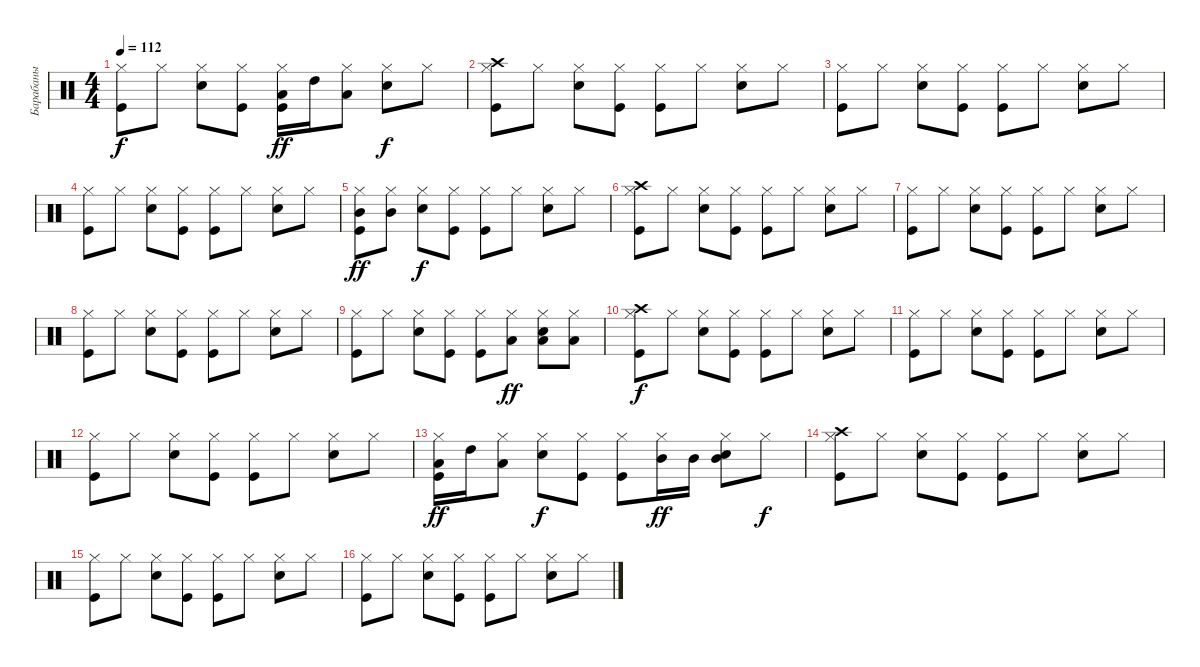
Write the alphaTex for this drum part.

\track ("Барабаны" "Барабаны") {instrument percussion}
\staff {score}
\articulation defaults
\ts (4 4)
\tempo 112
\clef neutral
\ks c
("Kick (hit)" "Hi-Hat (closed)").8{dy f} "Hi-Hat (closed)".8 ("Snare (hit) 2" "Hi-Hat (closed)").8 ("Kick (hit)" "Hi-Hat (closed)").8 ("Kick (hit)" "Hi-Hat (closed)" "Low Floor Tom (hit)").16{dy ff} "High Tom (hit)".16 ("Hi-Hat (closed)" "Low Floor Tom (hit)").8 ("Snare (hit) 2" "Hi-Hat (closed)").8{dy f} "Hi-Hat (closed)".8 |
("Kick (hit)" "Hi-Hat (closed)" "Crash high (hit)").8 "Hi-Hat (closed)".8 ("Snare (hit) 2" "Hi-Hat (closed)").8 ("Kick (hit)" "Hi-Hat (closed)").8 ("Kick (hit)" "Hi-Hat (closed)").8 "Hi-Hat (closed)".8 ("Snare (hit) 2" "Hi-Hat (closed)").8 "Hi-Hat (closed)".8 |
("Kick (hit)" "Hi-Hat (closed)").8 "Hi-Hat (closed)".8 ("Snare (hit) 2" "Hi-Hat (closed)").8 ("Kick (hit)" "Hi-Hat (closed)").8 ("Kick (hit)" "Hi-Hat (closed)").8 "Hi-Hat (closed)".8 ("Snare (hit) 2" "Hi-Hat (closed)").8 "Hi-Hat (closed)".8 |
("Kick (hit)" "Hi-Hat (closed)").8 "Hi-Hat (closed)".8 ("Snare (hit) 2" "Hi-Hat (closed)").8 ("Kick (hit)" "Hi-Hat (closed)").8 ("Kick (hit)" "Hi-Hat (closed)").8 "Hi-Hat (closed)".8 ("Snare (hit) 2" "Hi-Hat (closed)").8 "Hi-Hat (closed)".8 |
("Kick (hit)" "Hi-Hat (closed)" "Mid Tom (hit)").8{dy ff} ("Hi-Hat (closed)" "Mid Tom (hit)").8 ("Snare (hit) 2" "Hi-Hat (closed)").8{dy f} ("Kick (hit)" "Hi-Hat (closed)").8 ("Kick (hit)" "Hi-Hat (closed)").8 "Hi-Hat (closed)".8 ("Snare (hit) 2" "Hi-Hat (closed)").8 "Hi-Hat (closed)".8 |
("Kick (hit)" "Hi-Hat (closed)" "Crash high (hit)").8 "Hi-Hat (closed)".8 ("Snare (hit) 2" "Hi-Hat (closed)").8 ("Kick (hit)" "Hi-Hat (closed)").8 ("Kick (hit)" "Hi-Hat (closed)").8 "Hi-Hat (closed)".8 ("Snare (hit) 2" "Hi-Hat (closed)").8 "Hi-Hat (closed)".8 |
("Kick (hit)" "Hi-Hat (closed)").8 "Hi-Hat (closed)".8 ("Snare (hit) 2" "Hi-Hat (closed)").8 ("Kick (hit)" "Hi-Hat (closed)").8 ("Kick (hit)" "Hi-Hat (closed)").8 "Hi-Hat (closed)".8 ("Snare (hit) 2" "Hi-Hat (closed)").8 "Hi-Hat (closed)".8 |
("Kick (hit)" "Hi-Hat (closed)").8 "Hi-Hat (closed)".8 ("Snare (hit) 2" "Hi-Hat (closed)").8 ("Kick (hit)" "Hi-Hat (closed)").8 ("Kick (hit)" "Hi-Hat (closed)").8 "Hi-Hat (closed)".8 ("Snare (hit) 2" "Hi-Hat (closed)").8 "Hi-Hat (closed)".8 |
("Kick (hit)" "Hi-Hat (closed)").8 "Hi-Hat (closed)".8 ("Snare (hit) 2" "Hi-Hat (closed)").8 ("Kick (hit)" "Hi-Hat (closed)").8 ("Kick (hit)" "Hi-Hat (closed)").8 ("Hi-Hat (closed)" "Low Floor Tom (hit)").8{dy ff} ("Snare (hit) 2" "Hi-Hat (closed)" "Low Floor Tom (hit)").8 ("Hi-Hat (closed)" "Low Floor Tom (hit)").8 |
("Kick (hit)" "Hi-Hat (closed)" "Crash high (hit)").8{dy f} "Hi-Hat (closed)".8 ("Snare (hit) 2" "Hi-Hat (closed)").8 ("Kick (hit)" "Hi-Hat (closed)").8 ("Kick (hit)" "Hi-Hat (closed)").8 "Hi-Hat (closed)".8 ("Snare (hit) 2" "Hi-Hat (closed)").8 "Hi-Hat (closed)".8 |
("Kick (hit)" "Hi-Hat (closed)").8 "Hi-Hat (closed)".8 ("Snare (hit) 2" "Hi-Hat (closed)").8 ("Kick (hit)" "Hi-Hat (closed)").8 ("Kick (hit)" "Hi-Hat (closed)").8 "Hi-Hat (closed)".8 ("Snare (hit) 2" "Hi-Hat (closed)").8 "Hi-Hat (closed)".8 |
("Kick (hit)" "Hi-Hat (closed)").8 "Hi-Hat (closed)".8 ("Snare (hit) 2" "Hi-Hat (closed)").8 ("Kick (hit)" "Hi-Hat (closed)").8 ("Kick (hit)" "Hi-Hat (closed)").8 "Hi-Hat (closed)".8 ("Snare (hit) 2" "Hi-Hat (closed)").8 "Hi-Hat (closed)".8 |
("Kick (hit)" "Hi-Hat (closed)" "Low Floor Tom (hit)").16{dy ff} "High Tom (hit)".16 ("Hi-Hat (closed)" "Low Floor Tom (hit)").8 ("Snare (hit) 2" "Hi-Hat (closed)").8{dy f} ("Kick (hit)" "Hi-Hat (closed)").8 ("Kick (hit)" "Hi-Hat (closed)").8 ("Hi-Hat (closed)" "Mid Tom (hit)").16{dy ff} "Mid Tom (hit)".16 ("Snare (hit) 2" "Hi-Hat (closed)" "Mid Tom (hit)").8 "Hi-Hat (closed)".8{dy f} |
("Kick (hit)" "Hi-Hat (closed)" "Crash high (hit)").8 "Hi-Hat (closed)".8 ("Snare (hit) 2" "Hi-Hat (closed)").8 ("Kick (hit)" "Hi-Hat (closed)").8 ("Kick (hit)" "Hi-Hat (closed)").8 "Hi-Hat (closed)".8 ("Snare (hit) 2" "Hi-Hat (closed)").8 "Hi-Hat (closed)".8 |
("Kick (hit)" "Hi-Hat (closed)").8 "Hi-Hat (closed)".8 ("Snare (hit) 2" "Hi-Hat (closed)").8 ("Kick (hit)" "Hi-Hat (closed)").8 ("Kick (hit)" "Hi-Hat (closed)").8 "Hi-Hat (closed)".8 ("Snare (hit) 2" "Hi-Hat (closed)").8 "Hi-Hat (closed)".8 |
("Kick (hit)" "Hi-Hat (closed)").8 "Hi-Hat (closed)".8 ("Snare (hit) 2" "Hi-Hat (closed)").8 ("Kick (hit)" "Hi-Hat (closed)").8 ("Kick (hit)" "Hi-Hat (closed)").8 "Hi-Hat (closed)".8 ("Snare (hit) 2" "Hi-Hat (closed)").8 "Hi-Hat (closed)".8
